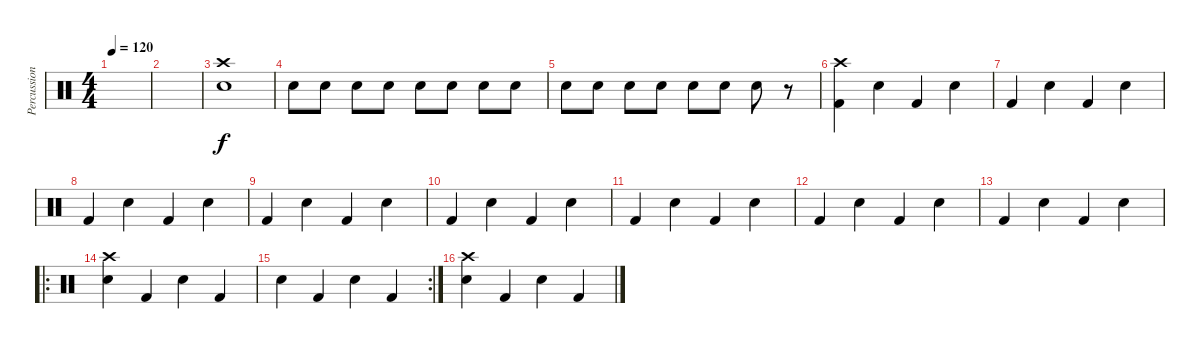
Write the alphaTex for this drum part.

\track ("Percussions" "Percussion") {instrument percussion}
\staff {score}
\articulation defaults
\ts (4 4)
\tempo 120
\clef neutral
\ks c
|
|
("Crash high (hit)" "Snare (hit) 2").1 |
"Snare (hit) 2".8 "Snare (hit) 2".8 "Snare (hit) 2".8 "Snare (hit) 2".8 "Snare (hit) 2".8 "Snare (hit) 2".8 "Snare (hit) 2".8 "Snare (hit) 2".8 |
"Snare (hit) 2".8 "Snare (hit) 2".8 "Snare (hit) 2".8 "Snare (hit) 2".8 "Snare (hit) 2".8 "Snare (hit) 2".8 "Snare (hit) 2".8 r.8 |
("Crash high (hit)" "Kick (hit) 2").4 "Snare (hit) 2".4 "Kick (hit) 2".4 "Snare (hit) 2".4 |
"Kick (hit) 2".4 "Snare (hit) 2".4 "Kick (hit) 2".4 "Snare (hit) 2".4 |
"Kick (hit) 2".4 "Snare (hit) 2".4 "Kick (hit) 2".4 "Snare (hit) 2".4 |
"Kick (hit) 2".4 "Snare (hit) 2".4 "Kick (hit) 2".4 "Snare (hit) 2".4 |
"Kick (hit) 2".4 "Snare (hit) 2".4 "Kick (hit) 2".4 "Snare (hit) 2".4 |
"Kick (hit) 2".4 "Snare (hit) 2".4 "Kick (hit) 2".4 "Snare (hit) 2".4 |
"Kick (hit) 2".4 "Snare (hit) 2".4 "Kick (hit) 2".4 "Snare (hit) 2".4 |
"Kick (hit) 2".4 "Snare (hit) 2".4 "Kick (hit) 2".4 "Snare (hit) 2".4 |
\ro
("Crash high (hit)" "Snare (hit) 2").4 "Kick (hit) 2".4 "Snare (hit) 2".4 "Kick (hit) 2".4 |
\rc 2 "Snare (hit) 2".4 "Kick (hit) 2".4 "Snare (hit) 2".4 "Kick (hit) 2".4
|
("Crash high (hit)" "Snare (hit) 2").4 "Kick (hit) 2".4 "Snare (hit) 2".4 "Kick (hit) 2".4
